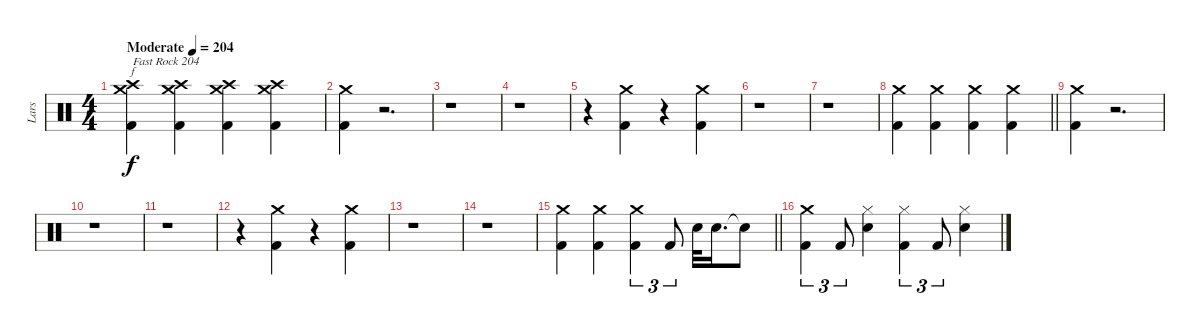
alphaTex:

\track ("Lars" "Lars") {instrument percussion}
\staff {score}
\articulation defaults
\chord ("f")
\ts (4 4)
\tempo (204 "Moderate")
\clef neutral
\ks c
("Crash high (hit)" "Crash medium (hit)" "Kick (hit) 2").4{ch "f" txt "Fast Rock 204" dy f} ("Crash high (hit)" "Crash medium (hit)" "Kick (hit) 2").4 ("Crash high (hit)" "Crash medium (hit)" "Kick (hit) 2").4 ("Crash high (hit)" "Crash medium (hit)" "Kick (hit) 2").4 |
("Kick (hit) 2" "Crash medium (hit)").4 r.2{d} |
r.1 |
r.1 |
r.4 ("Kick (hit) 2" "Crash medium (hit)").4 r.4 ("Kick (hit) 2" "Crash medium (hit)").4 |
r.1 |
r.1 |
\barLineRight lightlight
("Kick (hit) 2" "Crash medium (hit)").4 ("Kick (hit) 2" "Crash medium (hit)").4 ("Kick (hit) 2" "Crash medium (hit)").4 ("Kick (hit) 2" "Crash medium (hit)").4 |
("Kick (hit) 2" "Crash medium (hit)").4 r.2{d} |
r.1 |
r.1 |
r.4 ("Kick (hit) 2" "Crash medium (hit)").4 r.4 ("Kick (hit) 2" "Crash medium (hit)").4 |
r.1 |
r.1 |
\barLineRight lightlight
("Kick (hit) 2" "Crash medium (hit)").4 ("Kick (hit) 2" "Crash medium (hit)").4 ("Kick (hit) 2" "Crash medium (hit)").4{tu (3 2)} "Kick (hit) 2".8{tu (3 2)} "Snare (hit) 2".32 "Snare (hit) 2".16{d} "Snare (hit)"{t}.8 |
("Crash medium (hit)" "Kick (hit) 2").4{tu (3 2)} "Kick (hit) 2".8{tu (3 2)} ("Hi-Hat (closed)" "Snare (hit) 2").4 ("Hi-Hat (closed)" "Kick (hit) 2").4{tu (3 2)} "Kick (hit) 2".8{tu (3 2)} ("Snare (hit) 2" "Hi-Hat (closed)").4
